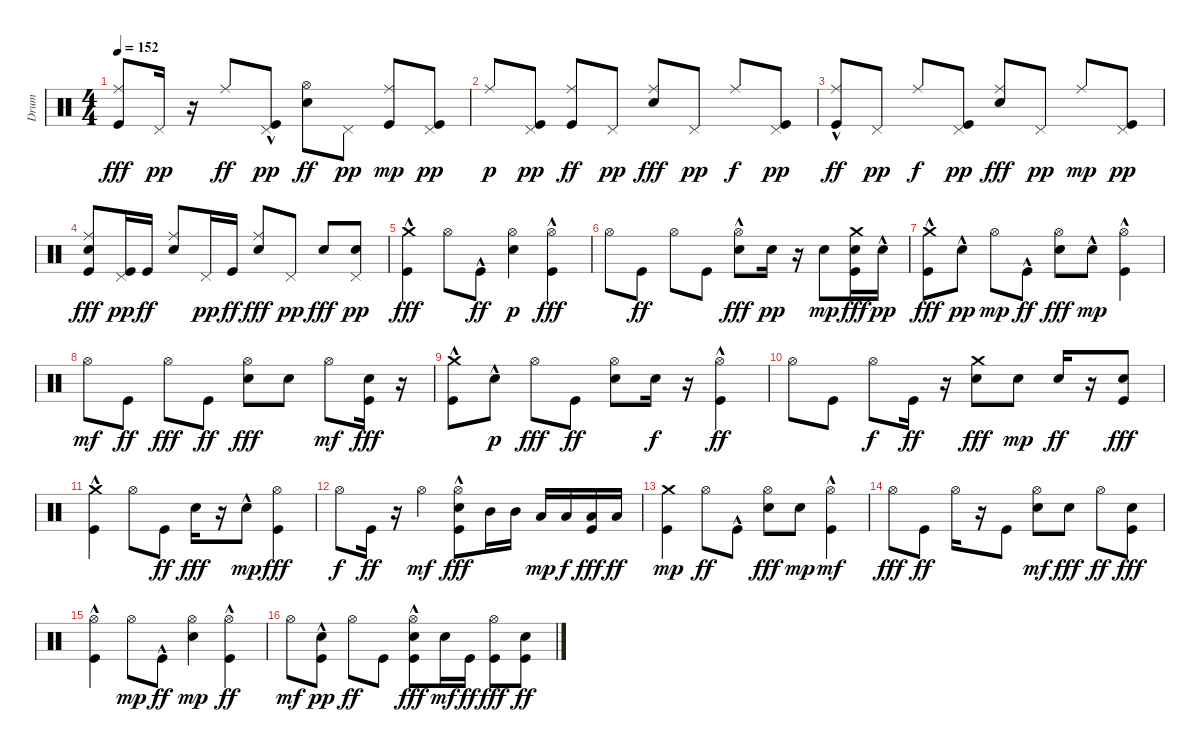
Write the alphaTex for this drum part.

\track ("Drum" "Drum") {instrument percussion}
\staff {score}
\articulation defaults
\ts (4 4)
\tempo 152
\clef neutral
\ks c
("Kick (hit)" "Ride (middle)").8{dy fff} "Pedal Hi-Hat (hit)".16{dy pp} r.16 "Ride (middle)".8{dy ff} ("Kick (hit)"{hac} "Pedal Hi-Hat (hit)").8{dy pp} ("Electric Snare (hit)" "Hi-Hat (open)").8{dy ff} "Pedal Hi-Hat (hit)".8{dy pp} ("Kick (hit)" "Ride (middle)").8{dy mp} ("Kick (hit)" "Pedal Hi-Hat (hit)").8{dy pp} |
"Ride (middle)".8{dy p} ("Kick (hit)" "Pedal Hi-Hat (hit)").8{dy pp} ("Kick (hit)" "Ride (middle)").8{dy ff} "Pedal Hi-Hat (hit)".8{dy pp} ("Electric Snare (hit)" "Ride (middle)").8{dy fff} "Pedal Hi-Hat (hit)".8{dy pp} "Ride (middle)".8{dy f} ("Kick (hit)" "Pedal Hi-Hat (hit)").8{dy pp} |
("Kick (hit)"{hac} "Ride (middle)").8{dy ff} "Pedal Hi-Hat (hit)".8{dy pp} "Ride (middle)".8{dy f} ("Kick (hit)" "Pedal Hi-Hat (hit)").8{dy pp} ("Electric Snare (hit)" "Ride (middle)").8{dy fff} "Pedal Hi-Hat (hit)".8{dy pp} "Ride (middle)".8{dy mp} ("Kick (hit)" "Pedal Hi-Hat (hit)").8{dy pp} |
("Kick (hit)" "Electric Snare (hit)" "Ride (middle)").8{dy fff} ("Kick (hit)" "Pedal Hi-Hat (hit)").16{dy pp} "Kick (hit)".16{dy ff} ("Electric Snare (hit)" "Ride (middle)").8 "Pedal Hi-Hat (hit)".16{dy pp} "Kick (hit)".16{dy ff} ("Electric Snare (hit)" "Ride (middle)").8{dy fff} "Pedal Hi-Hat (hit)".8{dy pp} "Electric Snare (hit)".8{dy fff} ("Electric Snare (hit)" "Pedal Hi-Hat (hit)").8{dy pp} |
("Kick (hit)"{hac} "Crash medium (hit)").4{dy fff} "Hi-Hat (open)".8 "Kick (hit)"{hac}.8{dy ff} ("Electric Snare (hit)" "Hi-Hat (open)").4{dy p} ("Kick (hit)"{hac} "Hi-Hat (open)").4{dy fff} |
"Hi-Hat (open)".8 "Kick (hit)".8{dy ff} "Hi-Hat (open)".8 "Kick (hit)".8 ("Electric Snare (hit)" "Hi-Hat (open)"{hac}).8{dy fff} "Electric Snare (hit)".16{dy pp} r.16 "Electric Snare (hit)".8{dy mp} ("Kick (hit)" "Electric Snare (hit)" "Crash medium (hit)").16{dy fff} "Electric Snare (hit)"{hac}.16{dy pp} |
("Kick (hit)"{hac} "Crash medium (hit)").8{dy fff} "Electric Snare (hit)"{hac}.8{dy pp} "Hi-Hat (open)".8{dy mp} "Kick (hit)"{hac}.8{dy ff} ("Electric Snare (hit)" "Hi-Hat (open)").8{dy fff} "Electric Snare (hit)"{hac}.8{dy mp} ("Kick (hit)"{hac} "Hi-Hat (open)").4 |
"Hi-Hat (open)".8{dy mf} "Kick (hit)".8{dy ff} "Hi-Hat (open)".8{dy fff} "Kick (hit)".8{dy ff} ("Electric Snare (hit)" "Hi-Hat (open)").8{dy fff} "Electric Snare (hit)".8 "Hi-Hat (open)".8{dy mf} ("Kick (hit)" "Electric Snare (hit)").16{dy fff} r.16 |
("Kick (hit)"{hac} "Crash medium (hit)").8 "Electric Snare (hit)"{hac}.8{dy p} "Hi-Hat (open)".8{dy fff} "Kick (hit)".8{dy ff} ("Electric Snare (hit)" "Hi-Hat (open)").8 "Electric Snare (hit)".16{dy f} r.16 ("Kick (hit)"{hac} "Hi-Hat (open)").4{dy ff} |
"Hi-Hat (open)".8 "Kick (hit)".8 "Hi-Hat (open)".8{dy f} "Kick (hit)".16{dy ff} r.16 ("Electric Snare (hit)" "Crash medium (hit)").8{dy fff} "Electric Snare (hit)".8{dy mp} "Electric Snare (hit)".16{dy ff} r.16 ("Kick (hit)" "Electric Snare (hit)").8{dy fff} |
("Kick (hit)"{hac} "Crash medium (hit)").4 "Hi-Hat (open)".8 "Kick (hit)".8{dy ff} "Electric Snare (hit)".16{dy fff} r.16 "Electric Snare (hit)"{hac}.8{dy mp} ("Kick (hit)" "Hi-Hat (open)").4{dy fff} |
"Hi-Hat (open)".8{dy f} "Kick (hit)".16{dy ff} r.16 "Hi-Hat (open)".4{dy mf} ("Kick (hit)" "Electric Snare (hit)" "Hi-Hat (open)"{hac}).8{dy fff} "Mid Tom (hit)".16 "Mid Tom (hit)".16 "Low Tom (hit)".16{dy mp} "Low Tom (hit)".16{dy f} ("Kick (hit)" "Low Floor Tom (hit)").16{dy fff} "Low Floor Tom (hit)".16{dy ff} |
("Kick (hit)" "Crash medium (hit)").4{dy mp} "Hi-Hat (open)".8{dy ff} "Kick (hit)"{hac}.8 ("Electric Snare (hit)" "Hi-Hat (open)").8{dy fff} "Electric Snare (hit)".8{dy mp} ("Kick (hit)"{hac} "Hi-Hat (open)").4{dy mf} |
"Hi-Hat (open)".8{dy fff} "Kick (hit)".8{dy ff} "Hi-Hat (open)".16 r.16 "Kick (hit)".8 ("Electric Snare (hit)" "Hi-Hat (open)").8{dy mf} "Electric Snare (hit)".8{dy fff} "Hi-Hat (open)".8{dy ff} ("Kick (hit)" "Electric Snare (hit)").8{dy fff} |
("Kick (hit)"{hac} "Hi-Hat (open)").4 "Hi-Hat (open)".8{dy mp} "Kick (hit)"{hac}.8{dy ff} ("Electric Snare (hit)" "Hi-Hat (open)").4{dy mp} ("Kick (hit)"{hac} "Hi-Hat (open)").4{dy ff} |
"Hi-Hat (open)".8{dy mf} ("Kick (hit)" "Electric Snare (hit)"{hac}).8{dy pp} "Hi-Hat (open)".8{dy ff} "Kick (hit)".8 ("Kick (hit)"{hac} "Electric Snare (hit)" "Hi-Hat (open)").8{dy fff} "Electric Snare (hit)".16{dy mf} "Kick (hit)".16{dy ff} ("Kick (hit)" "Hi-Hat (open)").8{dy fff} ("Kick (hit)" "Electric Snare (hit)").8{dy ff}
